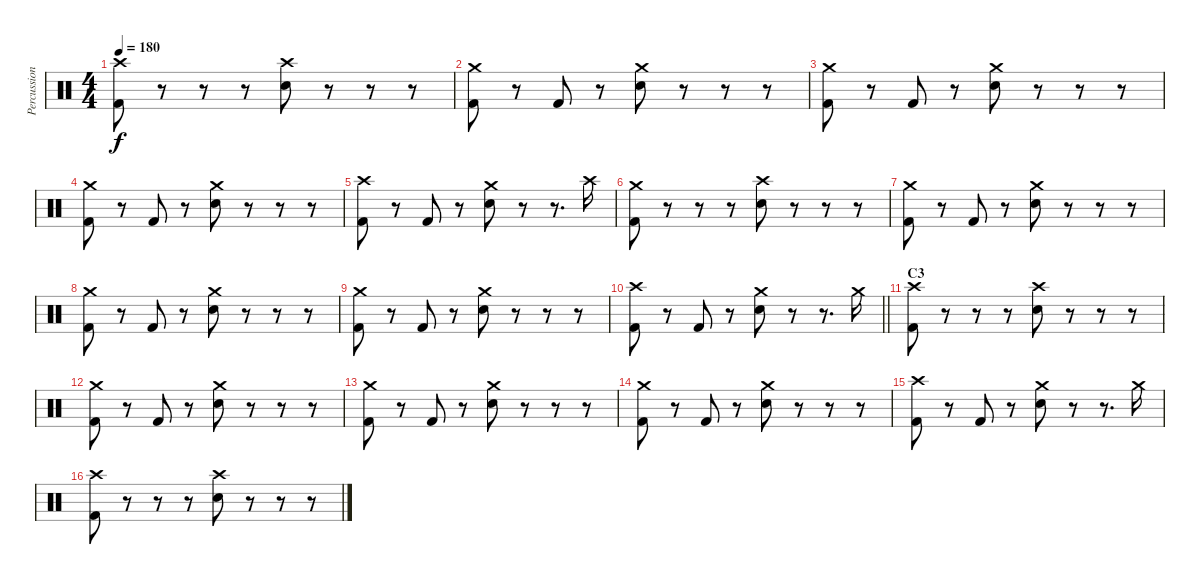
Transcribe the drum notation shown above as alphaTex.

\track ("Percussion" "Percussion") {instrument percussion}
\staff {score}
\articulation defaults
\ts (4 4)
\tempo 180
\clef neutral
\ks c
("Crash high (hit)" "Kick (hit) 2").8{dy f} r.8 r.8 r.8 ("Crash high (hit)" "Snare (hit) 2").8 r.8 r.8 r.8 |
("Crash medium (hit)" "Kick (hit) 2").8 r.8 "Kick (hit) 2".8 r.8 ("Crash medium (hit)" "Snare (hit) 2").8 r.8 r.8 r.8 |
("Crash medium (hit)" "Kick (hit) 2").8 r.8 "Kick (hit) 2".8 r.8 ("Crash medium (hit)" "Snare (hit) 2").8 r.8 r.8 r.8 |
("Crash medium (hit)" "Kick (hit) 2").8 r.8 "Kick (hit) 2".8 r.8 ("Crash medium (hit)" "Snare (hit) 2").8 r.8 r.8 r.8 |
("Crash high (hit)" "Kick (hit) 2").8 r.8 "Kick (hit) 2".8 r.8 ("Crash medium (hit)" "Snare (hit) 2").8 r.8 r.8{d} "Crash high (hit)".16 |
("Crash medium (hit)" "Kick (hit) 2").8 r.8 r.8 r.8 ("Crash high (hit)" "Snare (hit) 2").8 r.8 r.8 r.8 |
("Crash medium (hit)" "Kick (hit) 2").8 r.8 "Kick (hit) 2".8 r.8 ("Crash medium (hit)" "Snare (hit) 2").8 r.8 r.8 r.8 |
("Crash medium (hit)" "Kick (hit) 2").8 r.8 "Kick (hit) 2".8 r.8 ("Crash medium (hit)" "Snare (hit) 2").8 r.8 r.8 r.8 |
("Crash medium (hit)" "Kick (hit) 2").8 r.8 "Kick (hit) 2".8 r.8 ("Crash medium (hit)" "Snare (hit) 2").8 r.8 r.8 r.8 |
\barLineRight lightlight
("Crash high (hit)" "Kick (hit) 2").8 r.8 "Kick (hit) 2".8 r.8 ("Crash medium (hit)" "Snare (hit) 2").8 r.8 r.8{d} "Crash medium (hit)".16 |
\section ("" "C3")
("Crash high (hit)" "Kick (hit) 2").8 r.8 r.8 r.8 ("Crash high (hit)" "Snare (hit) 2").8 r.8 r.8 r.8 |
("Crash medium (hit)" "Kick (hit) 2").8 r.8 "Kick (hit) 2".8 r.8 ("Crash medium (hit)" "Snare (hit) 2").8 r.8 r.8 r.8 |
("Crash medium (hit)" "Kick (hit) 2").8 r.8 "Kick (hit) 2".8 r.8 ("Crash medium (hit)" "Snare (hit) 2").8 r.8 r.8 r.8 |
("Crash medium (hit)" "Kick (hit) 2").8 r.8 "Kick (hit) 2".8 r.8 ("Crash medium (hit)" "Snare (hit) 2").8 r.8 r.8 r.8 |
("Crash high (hit)" "Kick (hit) 2").8 r.8 "Kick (hit) 2".8 r.8 ("Crash medium (hit)" "Snare (hit) 2").8 r.8 r.8{d} "Crash medium (hit)".16 |
("Crash high (hit)" "Kick (hit) 2").8 r.8 r.8 r.8 ("Crash high (hit)" "Snare (hit) 2").8 r.8 r.8 r.8
